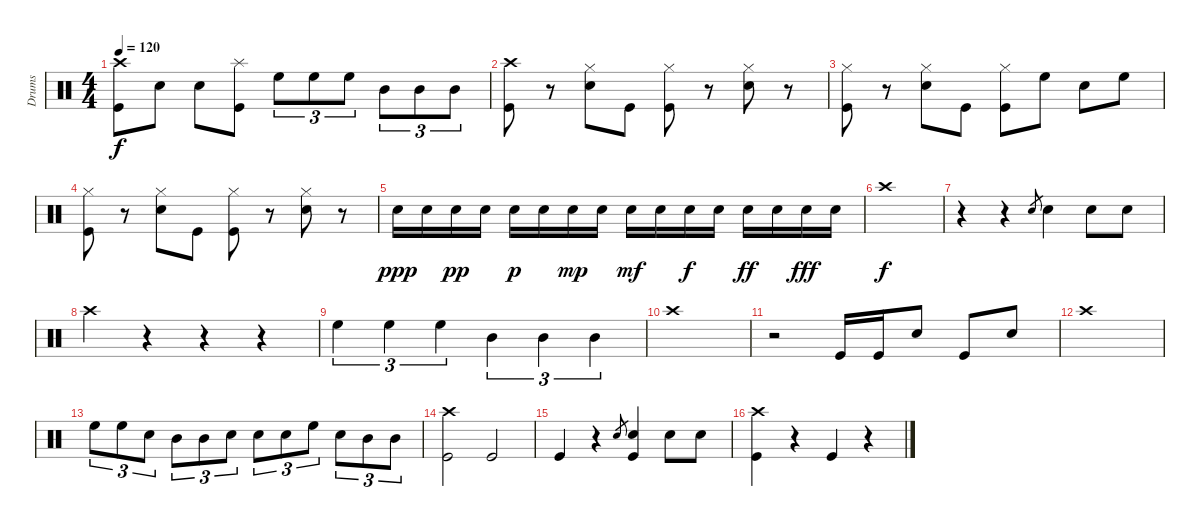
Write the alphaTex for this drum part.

\track ("Drums" "Drums") {instrument percussion}
\staff {score}
\articulation defaults
\ts (4 4)
\tempo 120
\clef neutral
\ks c
("Crash high (hit)" "Kick (hit)").8{dy f} "Snare (hit) 2".8 "Snare (hit) 2".8 ("Splash (hit)" "Kick (hit)").8 "High Floor Tom (hit)".8{tu (3 2)} "High Floor Tom (hit)".8{tu (3 2)} "High Floor Tom (hit)".8{tu (3 2)} "Mid Tom (hit)".8{tu (3 2)} "Mid Tom (hit)".8{tu (3 2)} "Mid Tom (hit)".8{tu (3 2)} |
("Crash high (hit)" "Kick (hit)").8 r.8 ("Hi-Hat (closed)" "Snare (hit) 2").8 "Kick (hit)".8 ("Hi-Hat (closed)" "Kick (hit)").8 r.8 ("Hi-Hat (closed)" "Snare (hit) 2").8 r.8 |
("Hi-Hat (closed)" "Kick (hit)").8 r.8 ("Hi-Hat (closed)" "Snare (hit) 2").8 "Kick (hit)".8 ("Hi-Hat (closed)" "Kick (hit)").8 "High Floor Tom (hit)".8 "Snare (hit) 2".8 "High Floor Tom (hit)".8 |
("Hi-Hat (closed)" "Kick (hit)").8 r.8 ("Hi-Hat (closed)" "Snare (hit) 2").8 "Kick (hit)".8 ("Hi-Hat (closed)" "Kick (hit)").8 r.8 ("Hi-Hat (closed)" "Snare (hit) 2").8 r.8 |
"Snare (hit) 2".16{dy ppp} "Snare (hit) 2".16 "Snare (hit) 2".16{dy pp} "Snare (hit) 2".16 "Snare (hit) 2".16{dy p} "Snare (hit) 2".16 "Snare (hit) 2".16{dy mp} "Snare (hit) 2".16 "Snare (hit) 2".16{dy mf} "Snare (hit) 2".16 "Snare (hit) 2".16{dy f} "Snare (hit) 2".16 "Snare (hit) 2".16{dy ff} "Snare (hit) 2".16 "Snare (hit) 2".16{dy fff} "Snare (hit) 2".16 |
"Crash high (hit)".1{dy f} |
r.4 r.4 "Snare (hit) 2".8{gr} "Snare (hit) 2".4 "Snare (hit) 2".8 "Snare (hit) 2".8 |
"Crash high (hit)".4 r.4 r.4 r.4 |
"High Floor Tom (hit)".4{tu (3 2)} "High Floor Tom (hit)".4{tu (3 2)} "High Floor Tom (hit)".4{tu (3 2)} "Mid Tom (hit)".4{tu (3 2)} "Mid Tom (hit)".4{tu (3 2)} "Mid Tom (hit)".4{tu (3 2)} |
"Crash high (hit)".1 |
r.2 "Kick (hit)".16 "Kick (hit)".16 "Snare (hit) 2".8 "Kick (hit)".8 "Snare (hit) 2".8 |
"Crash high (hit)".1 |
"High Floor Tom (hit)".8{tu (3 2)} "High Floor Tom (hit)".8{tu (3 2)} "Snare (hit) 2".8{tu (3 2)} "Mid Tom (hit)".8{tu (3 2)} "Mid Tom (hit)".8{tu (3 2)} "Snare (hit) 2".8{tu (3 2)} "Snare (hit) 2".8{tu (3 2)} "Snare (hit) 2".8{tu (3 2)} "High Floor Tom (hit)".8{tu (3 2)} "Snare (hit) 2".8{tu (3 2)} "Mid Tom (hit)".8{tu (3 2)} "Mid Tom (hit)".8{tu (3 2)} |
("Crash high (hit)" "Kick (hit)").2 "Kick (hit)".2 |
"Kick (hit)".4 r.4 "Snare (hit) 2".8{gr} ("Snare (hit) 2" "Kick (hit)").4 "Snare (hit) 2".8 "Snare (hit) 2".8 |
("Crash high (hit)" "Kick (hit)").4 r.4 "Kick (hit)".4 r.4
